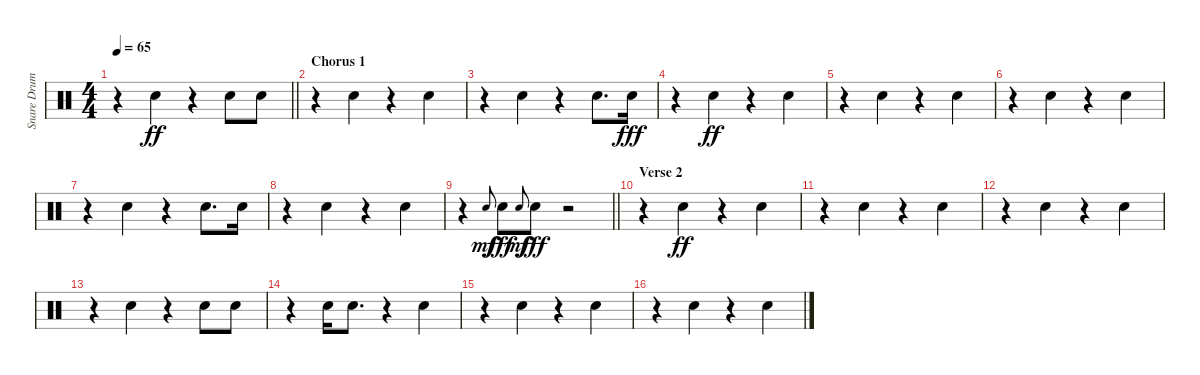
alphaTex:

\track ("Snare Drum" "Snare Drum") {instrument percussion}
\staff {score}
\articulation defaults
\ts (4 4)
\tempo 65
\clef neutral
\barLineRight lightlight
\ks c
r.4{dy ff} "Electric Snare (hit)".4 r.4 "Electric Snare (hit)".8 "Electric Snare (hit)".8 |
\section ("" "Chorus 1")
r.4 "Electric Snare (hit)".4 r.4 "Electric Snare (hit)".4 |
r.4 "Electric Snare (hit)".4 r.4 "Electric Snare (hit)".8{d} "Electric Snare (hit)".16{dy fff} |
r.4 "Electric Snare (hit)".4{dy ff} r.4 "Electric Snare (hit)".4 |
r.4 "Electric Snare (hit)".4 r.4 "Electric Snare (hit)".4 |
r.4 "Electric Snare (hit)".4 r.4 "Electric Snare (hit)".4 |
r.4 "Electric Snare (hit)".4 r.4 "Electric Snare (hit)".8{d} "Electric Snare (hit)".16 |
r.4 "Electric Snare (hit)".4 r.4 "Electric Snare (hit)".4 |
\barLineRight lightlight
r.4 "Electric Snare (hit)".8{gr onbeat dy mf} "Electric Snare (hit)".8{dy fff} "Electric Snare (hit)".8{gr onbeat dy mf} "Electric Snare (hit)".8{dy fff} r.2 |
\section ("" "Verse 2")
r.4 "Electric Snare (hit)".4{dy ff} r.4 "Electric Snare (hit)".4 |
r.4 "Electric Snare (hit)".4 r.4 "Electric Snare (hit)".4 |
r.4 "Electric Snare (hit)".4 r.4 "Electric Snare (hit)".4 |
r.4 "Electric Snare (hit)".4 r.4 "Electric Snare (hit)".8 "Electric Snare (hit)".8 |
r.4 "Electric Snare (hit)".16 "Electric Snare (hit)".8{d} r.4{beam merge} "Electric Snare (hit)".4 |
r.4 "Electric Snare (hit)".4 r.4 "Electric Snare (hit)".4 |
r.4 "Electric Snare (hit)".4 r.4 "Electric Snare (hit)".4
